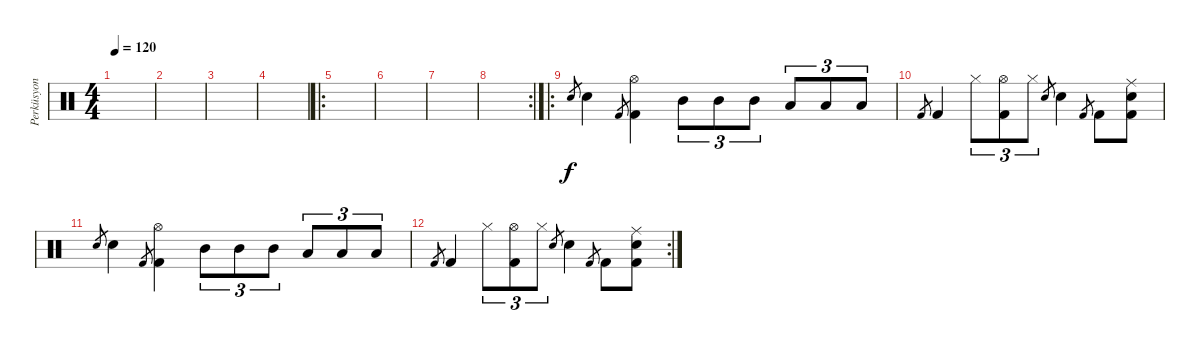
\track ("Perküsyon" "Perküsyon") {instrument percussion}
\staff {score}
\articulation defaults
\ts (4 4)
\tempo 120
\clef neutral
\ks c
|
|
|
|
\ro
|
|
|
\rc 2
|
\ro "Snare (hit) 2".8{gr} "Snare (hit) 2".4 "Kick (hit) 2".8{gr}
("Hi-Hat (open)" "Kick (hit) 2").4 "Mid Tom (hit)".8{tu (3 2)} "Mid Tom (hit)".8{tu (3 2)} "Mid Tom (hit)".8{tu (3 2)} "Low Tom (hit)".8{tu (3 2)} "Low Tom (hit)".8{tu (3 2)} "Low Tom (hit)".8{tu (3 2)} |
"Kick (hit) 2".8{gr} "Kick (hit) 2".4 "Hi-Hat (closed)".8{tu (3 2)} ("Hi-Hat (open)" "Kick (hit) 2").8{tu (3 2)} "Hi-Hat (closed)".8{tu (3 2)} "Snare (hit) 2".8{gr} "Snare (hit) 2".4 "Kick (hit) 2".8{gr} "Kick (hit) 2".8 ("Ride (middle)" "Kick (hit) 2" "Snare (hit) 2").8 |
"Snare (hit) 2".8{gr} "Snare (hit) 2".4 "Kick (hit) 2".8{gr} ("Hi-Hat (open)" "Kick (hit) 2").4 "Mid Tom (hit)".8{tu (3 2)} "Mid Tom (hit)".8{tu (3 2)} "Mid Tom (hit)".8{tu (3 2)} "Low Tom (hit)".8{tu (3 2)} "Low Tom (hit)".8{tu (3 2)} "Low Tom (hit)".8{tu (3 2)} |
\rc 2 "Kick (hit) 2".8{gr} "Kick (hit) 2".4 "Hi-Hat (closed)".8{tu (3 2)}
("Hi-Hat (open)" "Kick (hit) 2").8{tu (3 2)} "Hi-Hat (closed)".8{tu (3 2)} "Snare (hit) 2".8{gr} "Snare (hit) 2".4 "Kick (hit) 2".8{gr} "Kick (hit) 2".8 ("Ride (middle)" "Kick (hit) 2" "Snare (hit) 2").8
